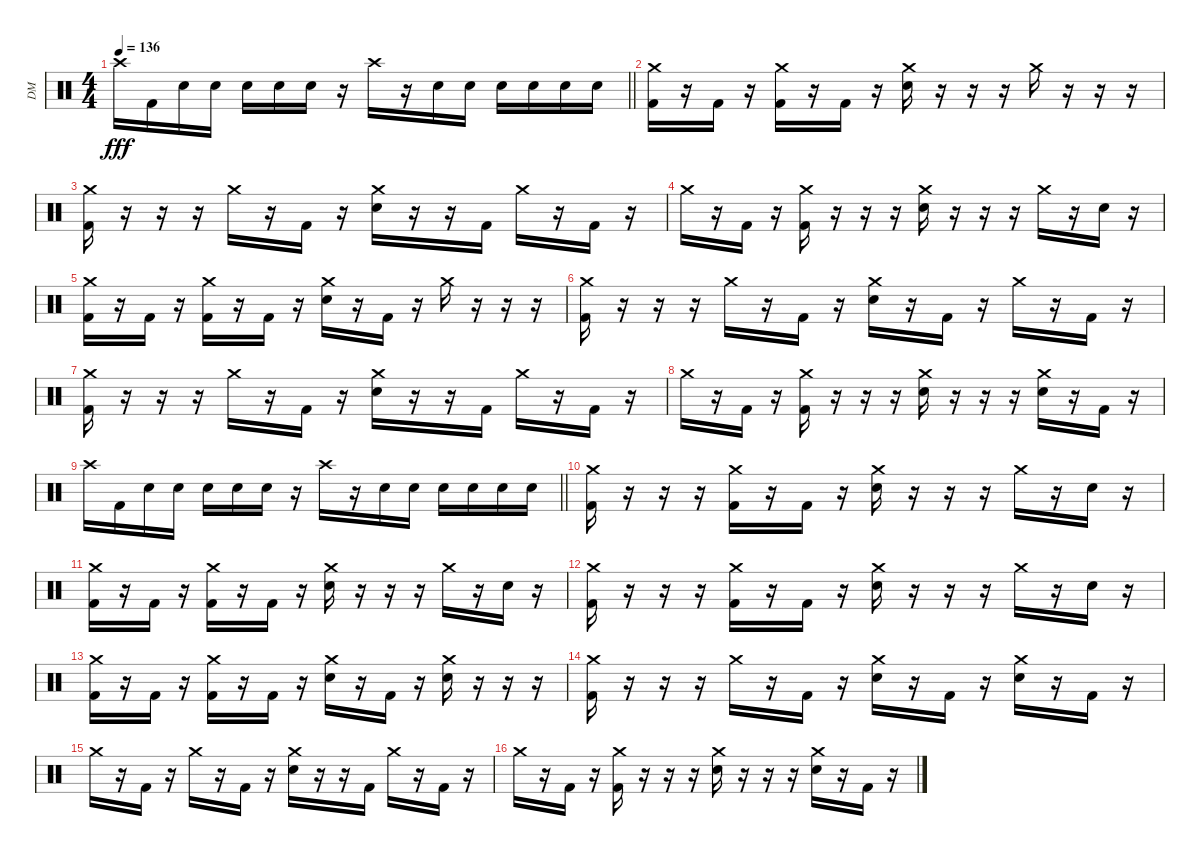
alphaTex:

\track ("DM" "DM") {instrument percussion}
\staff {score}
\articulation defaults
\ts (4 4)
\tempo 136
\clef neutral
\barLineRight lightlight
\ks c "Crash high (hit)".16{dy fff} "Kick (hit) 2".16 "Electric Snare (hit)".16 "Electric Snare (hit)".16 "Electric Snare (hit)".16 "Electric Snare (hit)".16 "Electric Snare (hit)".16
r.16 "Crash high (hit)".16 r.16 "Electric Snare (hit)".16 "Electric Snare (hit)".16 "Electric Snare (hit)".16 "Electric Snare (hit)".16 "Electric Snare (hit)".16 "Electric Snare (hit)".16 |
("Crash medium (hit)" "Kick (hit) 2").16 r.16 "Kick (hit) 2".16 r.16 ("Crash medium (hit)" "Kick (hit) 2").16 r.16 "Kick (hit) 2".16 r.16 ("Crash medium (hit)" "Electric Snare (hit)").16 r.16 r.16 r.16 "Crash medium (hit)".16 r.16 r.16 r.16 |
("Crash medium (hit)" "Kick (hit) 2").16 r.16 r.16 r.16 "Crash medium (hit)".16 r.16 "Kick (hit) 2".16 r.16 ("Crash medium (hit)" "Electric Snare (hit)").16 r.16 r.16 "Kick (hit) 2".16 "Crash medium (hit)".16 r.16 "Kick (hit) 2".16 r.16 |
"Crash medium (hit)".16 r.16 "Kick (hit) 2".16 r.16 ("Crash medium (hit)" "Kick (hit) 2").16 r.16 r.16 r.16 ("Crash medium (hit)" "Electric Snare (hit)").16 r.16 r.16 r.16 "Crash medium (hit)".16 r.16 "Electric Snare (hit)".16 r.16 |
("Crash medium (hit)" "Kick (hit) 2").16 r.16 "Kick (hit) 2".16 r.16 ("Crash medium (hit)" "Kick (hit) 2").16 r.16 "Kick (hit) 2".16 r.16 ("Crash medium (hit)" "Electric Snare (hit)").16 r.16 "Kick (hit) 2".16 r.16 "Crash medium (hit)".16 r.16 r.16 r.16 |
("Crash medium (hit)" "Kick (hit) 2").16 r.16 r.16 r.16 "Crash medium (hit)".16 r.16 "Kick (hit) 2".16 r.16 ("Crash medium (hit)" "Electric Snare (hit)").16 r.16 "Kick (hit) 2".16 r.16 "Crash medium (hit)".16 r.16 "Kick (hit) 2".16 r.16 |
("Crash medium (hit)" "Kick (hit) 2").16 r.16 r.16 r.16 "Crash medium (hit)".16 r.16 "Kick (hit) 2".16 r.16 ("Crash medium (hit)" "Electric Snare (hit)").16 r.16 r.16 "Kick (hit) 2".16 "Crash medium (hit)".16 r.16 "Kick (hit) 2".16 r.16 |
"Crash medium (hit)".16 r.16 "Kick (hit) 2".16 r.16 ("Crash medium (hit)" "Kick (hit) 2").16 r.16 r.16 r.16 ("Crash medium (hit)" "Electric Snare (hit)").16 r.16 r.16 r.16 ("Crash medium (hit)" "Electric Snare (hit)").16 r.16 "Kick (hit) 2".16 r.16 |
\barLineRight lightlight "Crash high (hit)".16 "Kick (hit) 2".16 "Electric Snare (hit)".16 "Electric Snare (hit)".16 "Electric Snare (hit)".16 "Electric Snare (hit)".16 "Electric Snare (hit)".16
r.16 "Crash high (hit)".16 r.16 "Electric Snare (hit)".16 "Electric Snare (hit)".16 "Electric Snare (hit)".16 "Electric Snare (hit)".16 "Electric Snare (hit)".16 "Electric Snare (hit)".16 |
\section ("" "")
("Crash medium (hit)" "Kick (hit) 2").16 r.16 r.16 r.16 ("Crash medium (hit)" "Kick (hit) 2").16 r.16 "Kick (hit) 2".16 r.16 ("Crash medium (hit)" "Electric Snare (hit)").16 r.16 r.16 r.16 "Crash medium (hit)".16 r.16 "Electric Snare (hit)".16 r.16 |
("Crash medium (hit)" "Kick (hit) 2").16 r.16 "Kick (hit) 2".16 r.16 ("Crash medium (hit)" "Kick (hit) 2").16 r.16 "Kick (hit) 2".16 r.16 ("Crash medium (hit)" "Electric Snare (hit)").16 r.16 r.16 r.16 "Crash medium (hit)".16 r.16 "Electric Snare (hit)".16 r.16 |
("Crash medium (hit)" "Kick (hit) 2").16 r.16 r.16 r.16 ("Crash medium (hit)" "Kick (hit) 2").16 r.16 "Kick (hit) 2".16 r.16 ("Crash medium (hit)" "Electric Snare (hit)").16 r.16 r.16 r.16 "Crash medium (hit)".16 r.16 "Electric Snare (hit)".16 r.16 |
("Crash medium (hit)" "Kick (hit) 2").16 r.16 "Kick (hit) 2".16 r.16 ("Crash medium (hit)" "Kick (hit) 2").16 r.16 "Kick (hit) 2".16 r.16 ("Crash medium (hit)" "Electric Snare (hit)").16 r.16 "Kick (hit) 2".16 r.16 ("Crash medium (hit)" "Electric Snare (hit)").16 r.16 r.16 r.16 |
("Crash medium (hit)" "Kick (hit) 2").16 r.16 r.16 r.16 "Crash medium (hit)".16 r.16 "Kick (hit) 2".16 r.16 ("Crash medium (hit)" "Electric Snare (hit)").16 r.16 "Kick (hit) 2".16 r.16 ("Crash medium (hit)" "Electric Snare (hit)").16 r.16 "Kick (hit) 2".16 r.16 |
"Crash medium (hit)".16 r.16 "Kick (hit) 2".16 r.16 "Crash medium (hit)".16 r.16 "Kick (hit) 2".16 r.16 ("Crash medium (hit)" "Electric Snare (hit)").16 r.16 r.16 "Kick (hit) 2".16 "Crash medium (hit)".16 r.16 "Kick (hit) 2".16 r.16 |
"Crash medium (hit)".16 r.16 "Kick (hit) 2".16 r.16 ("Crash medium (hit)" "Kick (hit) 2").16 r.16 r.16 r.16 ("Crash medium (hit)" "Electric Snare (hit)").16 r.16 r.16 r.16 ("Crash medium (hit)" "Electric Snare (hit)").16 r.16 "Kick (hit) 2".16 r.16
